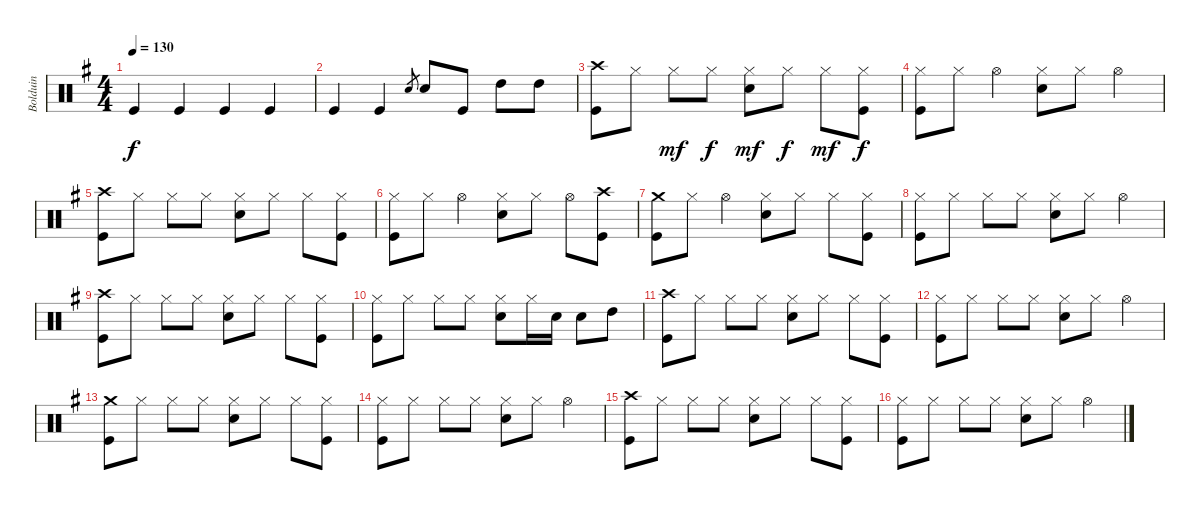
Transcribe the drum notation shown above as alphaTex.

\track ("Bolduin" "Bolduin") {instrument percussion}
\staff {score}
\articulation defaults
\ts (4 4)
\tempo 130
\clef neutral
\ks eminor "Kick (hit)".4{dy f} "Kick (hit)".4 "Kick (hit)".4 "Kick (hit)".4
|
"Kick (hit)".4 "Kick (hit)".4 "Snare (hit) 2".8{gr} "Snare (hit) 2".8 "Kick (hit)".8 "High Tom (hit)".8 "High Tom (hit)".8 |
("Crash high (hit)" "Kick (hit)").8 "Hi-Hat (closed)".8 "Hi-Hat (closed)".8{dy mf} "Hi-Hat (closed)".8{dy f} ("Hi-Hat (closed)" "Snare (hit) 2").8{dy mf} "Hi-Hat (closed)".8{dy f} "Hi-Hat (closed)".8{dy mf} ("Hi-Hat (closed)" "Kick (hit)").8{dy f} |
("Hi-Hat (closed)" "Kick (hit)").8 "Hi-Hat (closed)".8 "Hi-Hat (open)".4 ("Hi-Hat (closed)" "Snare (hit) 2").8 "Hi-Hat (closed)".8 "Hi-Hat (open)".4 |
("Crash high (hit)" "Kick (hit)").8 "Hi-Hat (closed)".8 "Hi-Hat (closed)".8 "Hi-Hat (closed)".8 ("Hi-Hat (closed)" "Snare (hit) 2").8 "Hi-Hat (closed)".8 "Hi-Hat (closed)".8 ("Hi-Hat (closed)" "Kick (hit)").8 |
("Hi-Hat (closed)" "Kick (hit)").8 "Hi-Hat (closed)".8 "Hi-Hat (open)".4 ("Hi-Hat (closed)" "Snare (hit) 2").8 "Hi-Hat (closed)".8 "Hi-Hat (open)".8 ("Crash high (hit)" "Kick (hit)").8 |
("Crash medium (hit)" "Kick (hit)").8 "Hi-Hat (closed)".8 "Hi-Hat (open)".4 ("Hi-Hat (closed)" "Snare (hit) 2").8 "Hi-Hat (closed)".8 "Hi-Hat (closed)".8 ("Hi-Hat (closed)" "Kick (hit)").8 |
("Hi-Hat (closed)" "Kick (hit)").8 "Hi-Hat (closed)".8 "Hi-Hat (closed)".8 "Hi-Hat (closed)".8 ("Hi-Hat (closed)" "Snare (hit) 2").8 "Hi-Hat (closed)".8 "Hi-Hat (open)".4 |
("Crash high (hit)" "Kick (hit)").8 "Hi-Hat (closed)".8 "Hi-Hat (closed)".8 "Hi-Hat (closed)".8 ("Hi-Hat (closed)" "Snare (hit) 2").8 "Hi-Hat (closed)".8 "Hi-Hat (closed)".8 ("Hi-Hat (closed)" "Kick (hit)").8 |
("Hi-Hat (closed)" "Kick (hit)").8 "Hi-Hat (closed)".8 "Hi-Hat (closed)".8 "Hi-Hat (closed)".8 ("Hi-Hat (closed)" "Snare (hit) 2").8 "Hi-Hat (closed)".16 "Snare (hit) 2".16 "Snare (hit) 2".8 "High Tom (hit)".8 |
("Crash high (hit)" "Kick (hit)").8 "Hi-Hat (closed)".8 "Hi-Hat (closed)".8 "Hi-Hat (closed)".8 ("Hi-Hat (closed)" "Snare (hit) 2").8 "Hi-Hat (closed)".8 "Hi-Hat (closed)".8 ("Hi-Hat (closed)" "Kick (hit)").8 |
("Hi-Hat (closed)" "Kick (hit)").8 "Hi-Hat (closed)".8 "Hi-Hat (closed)".8 "Hi-Hat (closed)".8 ("Hi-Hat (closed)" "Snare (hit) 2").8 "Hi-Hat (closed)".8 "Hi-Hat (open)".4 |
("Crash medium (hit)" "Kick (hit)").8 "Hi-Hat (closed)".8 "Hi-Hat (closed)".8 "Hi-Hat (closed)".8 ("Hi-Hat (closed)" "Snare (hit) 2").8 "Hi-Hat (closed)".8 "Hi-Hat (closed)".8 ("Hi-Hat (closed)" "Kick (hit)").8 |
("Hi-Hat (closed)" "Kick (hit)").8 "Hi-Hat (closed)".8 "Hi-Hat (closed)".8 "Hi-Hat (closed)".8 ("Hi-Hat (closed)" "Snare (hit) 2").8 "Hi-Hat (closed)".8 "Hi-Hat (open)".4 |
("Crash high (hit)" "Kick (hit)").8 "Hi-Hat (closed)".8 "Hi-Hat (closed)".8 "Hi-Hat (closed)".8 ("Hi-Hat (closed)" "Snare (hit) 2").8 "Hi-Hat (closed)".8 "Hi-Hat (closed)".8 ("Hi-Hat (closed)" "Kick (hit)").8 |
("Hi-Hat (closed)" "Kick (hit)").8 "Hi-Hat (closed)".8 "Hi-Hat (closed)".8 "Hi-Hat (closed)".8 ("Hi-Hat (closed)" "Snare (hit) 2").8 "Hi-Hat (closed)".8 "Hi-Hat (open)".4
